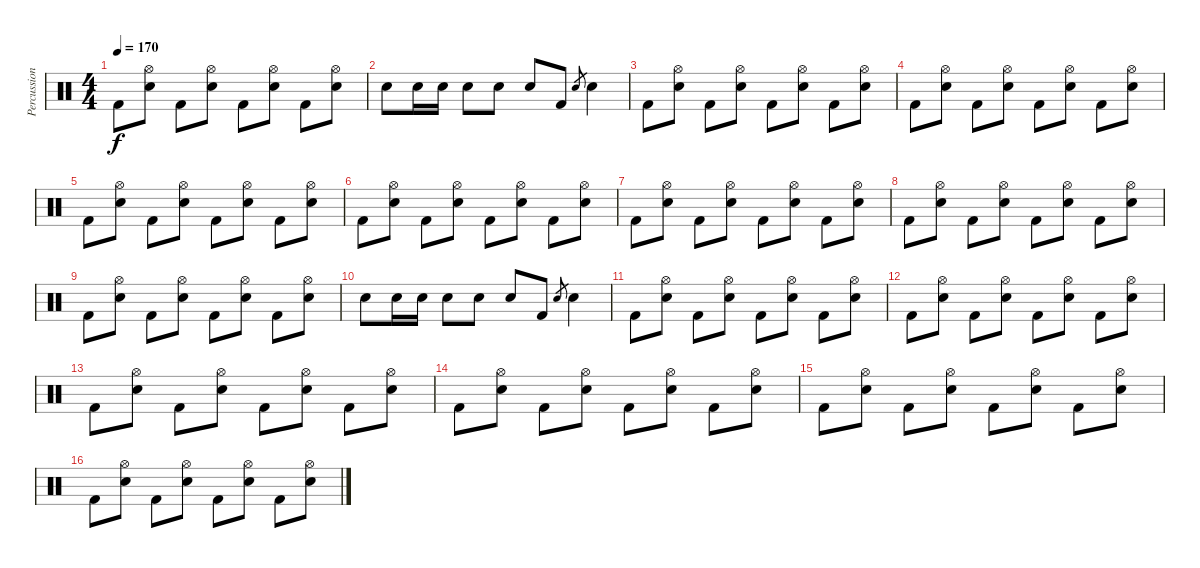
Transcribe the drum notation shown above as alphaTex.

\track ("Percussion" "Percussion") {instrument percussion}
\staff {score}
\articulation defaults
\ts (4 4)
\tempo 170
\clef neutral
\ks c "Kick (hit) 2".8{dy f}
("Hi-Hat (open)" "Electric Snare (hit)").8 "Kick (hit) 2".8 ("Hi-Hat (open)" "Electric Snare (hit)").8 "Kick (hit) 2".8 ("Hi-Hat (open)" "Electric Snare (hit)").8 "Kick (hit) 2".8 ("Hi-Hat (open)" "Electric Snare (hit)").8 |
"Electric Snare (hit)".8 "Electric Snare (hit)".16 "Electric Snare (hit)".16 "Electric Snare (hit)".8 "Electric Snare (hit)".8 "Electric Snare (hit)".8 "Kick (hit) 2".8 "Electric Snare (hit)".8{gr} "Electric Snare (hit)".4 |
"Kick (hit) 2".8 ("Hi-Hat (open)" "Electric Snare (hit)").8 "Kick (hit) 2".8 ("Hi-Hat (open)" "Electric Snare (hit)").8 "Kick (hit) 2".8 ("Hi-Hat (open)" "Electric Snare (hit)").8 "Kick (hit) 2".8 ("Hi-Hat (open)" "Electric Snare (hit)").8 |
"Kick (hit) 2".8 ("Hi-Hat (open)" "Electric Snare (hit)").8 "Kick (hit) 2".8 ("Hi-Hat (open)" "Electric Snare (hit)").8 "Kick (hit) 2".8 ("Hi-Hat (open)" "Electric Snare (hit)").8 "Kick (hit) 2".8 ("Hi-Hat (open)" "Electric Snare (hit)").8 |
"Kick (hit) 2".8 ("Hi-Hat (open)" "Electric Snare (hit)").8 "Kick (hit) 2".8 ("Hi-Hat (open)" "Electric Snare (hit)").8 "Kick (hit) 2".8 ("Hi-Hat (open)" "Electric Snare (hit)").8 "Kick (hit) 2".8 ("Hi-Hat (open)" "Electric Snare (hit)").8 |
"Kick (hit) 2".8 ("Hi-Hat (open)" "Electric Snare (hit)").8 "Kick (hit) 2".8 ("Hi-Hat (open)" "Electric Snare (hit)").8 "Kick (hit) 2".8 ("Hi-Hat (open)" "Electric Snare (hit)").8 "Kick (hit) 2".8 ("Hi-Hat (open)" "Electric Snare (hit)").8 |
"Kick (hit) 2".8 ("Hi-Hat (open)" "Electric Snare (hit)").8 "Kick (hit) 2".8 ("Hi-Hat (open)" "Electric Snare (hit)").8 "Kick (hit) 2".8 ("Hi-Hat (open)" "Electric Snare (hit)").8 "Kick (hit) 2".8 ("Hi-Hat (open)" "Electric Snare (hit)").8 |
"Kick (hit) 2".8 ("Hi-Hat (open)" "Electric Snare (hit)").8 "Kick (hit) 2".8 ("Hi-Hat (open)" "Electric Snare (hit)").8 "Kick (hit) 2".8 ("Hi-Hat (open)" "Electric Snare (hit)").8 "Kick (hit) 2".8 ("Hi-Hat (open)" "Electric Snare (hit)").8 |
"Kick (hit) 2".8 ("Hi-Hat (open)" "Electric Snare (hit)").8 "Kick (hit) 2".8 ("Hi-Hat (open)" "Electric Snare (hit)").8 "Kick (hit) 2".8 ("Hi-Hat (open)" "Electric Snare (hit)").8 "Kick (hit) 2".8 ("Hi-Hat (open)" "Electric Snare (hit)").8 |
"Electric Snare (hit)".8 "Electric Snare (hit)".16 "Electric Snare (hit)".16 "Electric Snare (hit)".8 "Electric Snare (hit)".8 "Electric Snare (hit)".8 "Kick (hit) 2".8 "Electric Snare (hit)".8{gr} "Electric Snare (hit)".4 |
"Kick (hit) 2".8 ("Hi-Hat (open)" "Electric Snare (hit)").8 "Kick (hit) 2".8 ("Hi-Hat (open)" "Electric Snare (hit)").8 "Kick (hit) 2".8 ("Hi-Hat (open)" "Electric Snare (hit)").8 "Kick (hit) 2".8 ("Hi-Hat (open)" "Electric Snare (hit)").8 |
"Kick (hit) 2".8 ("Hi-Hat (open)" "Electric Snare (hit)").8 "Kick (hit) 2".8 ("Hi-Hat (open)" "Electric Snare (hit)").8 "Kick (hit) 2".8 ("Hi-Hat (open)" "Electric Snare (hit)").8 "Kick (hit) 2".8 ("Hi-Hat (open)" "Electric Snare (hit)").8 |
"Kick (hit) 2".8 ("Hi-Hat (open)" "Electric Snare (hit)").8 "Kick (hit) 2".8 ("Hi-Hat (open)" "Electric Snare (hit)").8 "Kick (hit) 2".8 ("Hi-Hat (open)" "Electric Snare (hit)").8 "Kick (hit) 2".8 ("Hi-Hat (open)" "Electric Snare (hit)").8 |
"Kick (hit) 2".8 ("Hi-Hat (open)" "Electric Snare (hit)").8 "Kick (hit) 2".8 ("Hi-Hat (open)" "Electric Snare (hit)").8 "Kick (hit) 2".8 ("Hi-Hat (open)" "Electric Snare (hit)").8 "Kick (hit) 2".8 ("Hi-Hat (open)" "Electric Snare (hit)").8 |
"Kick (hit) 2".8 ("Hi-Hat (open)" "Electric Snare (hit)").8 "Kick (hit) 2".8 ("Hi-Hat (open)" "Electric Snare (hit)").8 "Kick (hit) 2".8 ("Hi-Hat (open)" "Electric Snare (hit)").8 "Kick (hit) 2".8 ("Hi-Hat (open)" "Electric Snare (hit)").8 |
"Kick (hit) 2".8 ("Hi-Hat (open)" "Electric Snare (hit)").8 "Kick (hit) 2".8 ("Hi-Hat (open)" "Electric Snare (hit)").8 "Kick (hit) 2".8 ("Hi-Hat (open)" "Electric Snare (hit)").8 "Kick (hit) 2".8 ("Hi-Hat (open)" "Electric Snare (hit)").8
